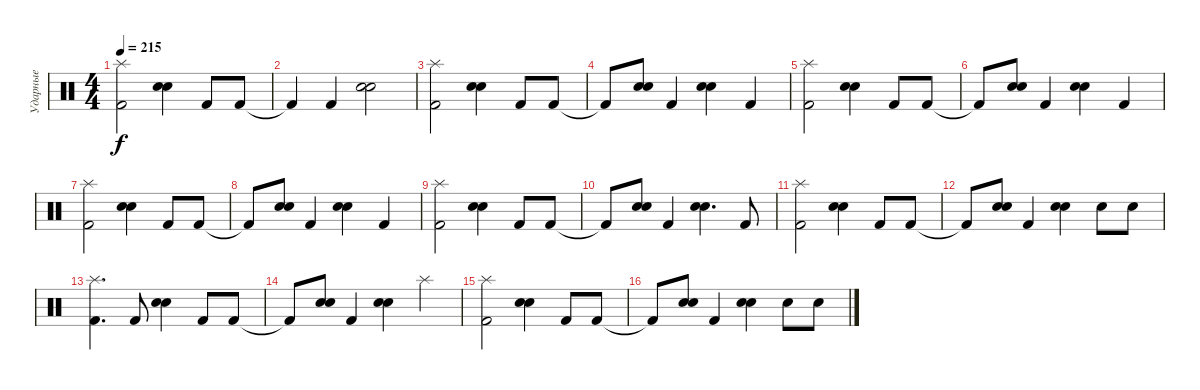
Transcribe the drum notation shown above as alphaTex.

\track ("Ударные" "Ударные") {instrument percussion}
\staff {score}
\articulation defaults
\ts (4 4)
\tempo 215
\clef neutral
\ks c
("Splash (hit)" "Kick (hit) 2").2{dy f} ("Electric Snare (hit)" "Snare (hit) 2").4 "Kick (hit) 2".8 "Kick (hit) 2".8 |
"Kick (hit) 2"{t}.4 "Kick (hit) 2".4 ("Electric Snare (hit)" "Snare (hit) 2").2 |
("Splash (hit)" "Kick (hit) 2").2 ("Electric Snare (hit)" "Snare (hit) 2").4 "Kick (hit) 2".8 "Kick (hit) 2".8 |
"Kick (hit) 2"{t}.8 ("Electric Snare (hit)" "Snare (hit) 2").8 "Kick (hit) 2".4 ("Electric Snare (hit)" "Snare (hit) 2").4 "Kick (hit) 2".4 |
("Splash (hit)" "Kick (hit) 2").2 ("Electric Snare (hit)" "Snare (hit) 2").4 "Kick (hit) 2".8 "Kick (hit) 2".8 |
"Kick (hit) 2"{t}.8 ("Electric Snare (hit)" "Snare (hit) 2").8 "Kick (hit) 2".4 ("Electric Snare (hit)" "Snare (hit) 2").4 "Kick (hit) 2".4 |
("Splash (hit)" "Kick (hit) 2").2 ("Electric Snare (hit)" "Snare (hit) 2").4 "Kick (hit) 2".8 "Kick (hit) 2".8 |
"Kick (hit) 2"{t}.8 ("Electric Snare (hit)" "Snare (hit) 2").8 "Kick (hit) 2".4 ("Electric Snare (hit)" "Snare (hit) 2").4 "Kick (hit) 2".4 |
("Splash (hit)" "Kick (hit) 2").2 ("Electric Snare (hit)" "Snare (hit) 2").4 "Kick (hit) 2".8 "Kick (hit) 2".8 |
"Kick (hit) 2"{t}.8 ("Electric Snare (hit)" "Snare (hit) 2").8 "Kick (hit) 2".4 ("Electric Snare (hit)" "Snare (hit) 2").4{d} "Kick (hit) 2".8 |
("Splash (hit)" "Kick (hit) 2").2 ("Electric Snare (hit)" "Snare (hit) 2").4 "Kick (hit) 2".8 "Kick (hit) 2".8 |
"Kick (hit) 2"{t}.8 ("Electric Snare (hit)" "Snare (hit) 2").8 "Kick (hit) 2".4 ("Electric Snare (hit)" "Snare (hit) 2").4 "Electric Snare (hit)".8 "Electric Snare (hit)".8 |
("Splash (hit)" "Kick (hit) 2").4{d} "Kick (hit) 2".8 ("Electric Snare (hit)" "Snare (hit) 2").4 "Kick (hit) 2".8 "Kick (hit) 2".8 |
"Kick (hit) 2"{t}.8 ("Electric Snare (hit)" "Snare (hit) 2").8 "Kick (hit) 2".4 ("Electric Snare (hit)" "Snare (hit) 2").4 "Splash (hit)".4 |
("Splash (hit)" "Kick (hit) 2").2 ("Electric Snare (hit)" "Snare (hit) 2").4 "Kick (hit) 2".8 "Kick (hit) 2".8 |
"Kick (hit) 2"{t}.8 ("Electric Snare (hit)" "Snare (hit) 2").8 "Kick (hit) 2".4 ("Electric Snare (hit)" "Snare (hit) 2").4 "Electric Snare (hit)".8 "Electric Snare (hit)".8
